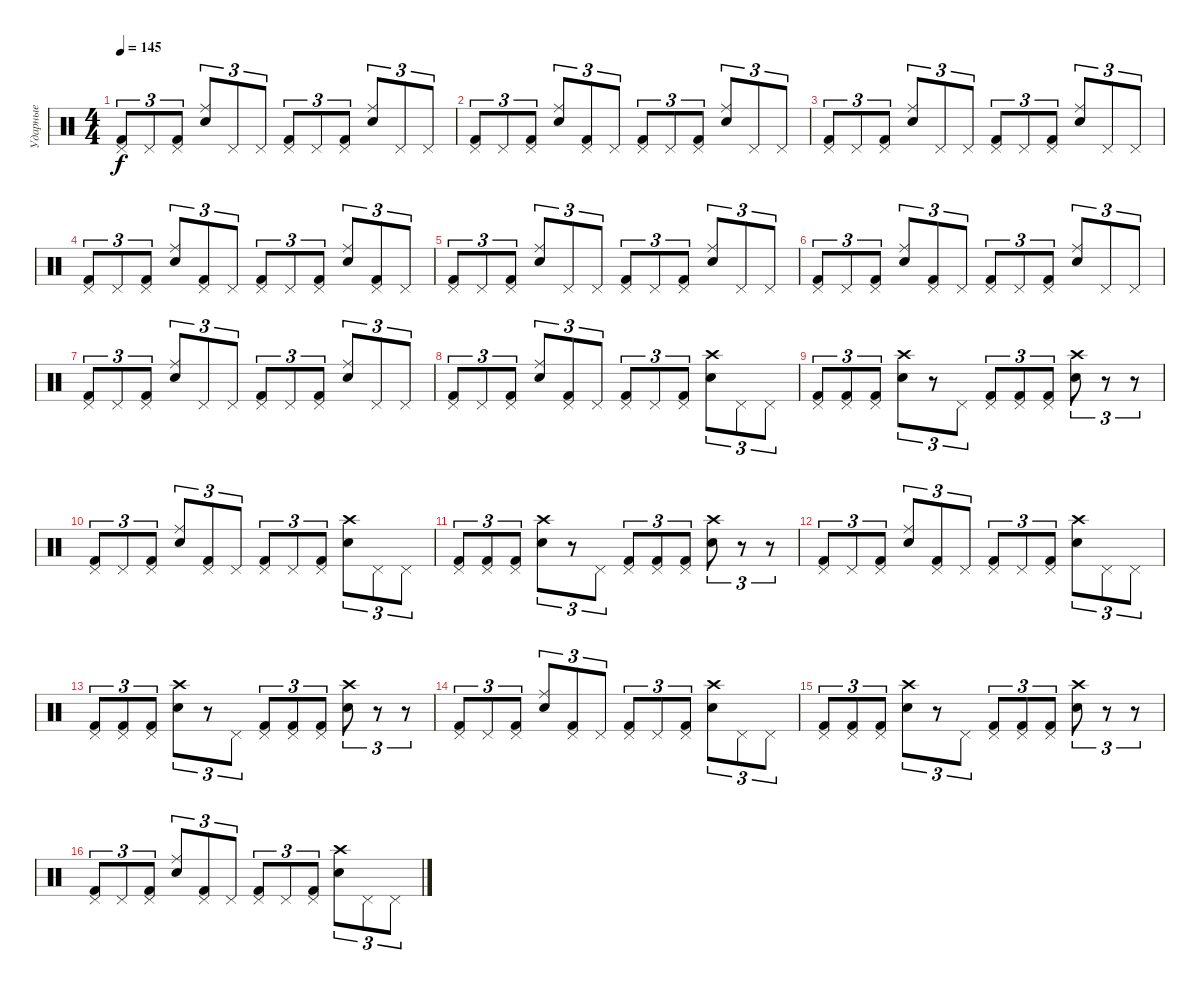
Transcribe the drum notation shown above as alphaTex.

\track ("Ударные" "Ударные") {instrument percussion}
\staff {score}
\articulation defaults
\ts (4 4)
\tempo 145
\clef neutral
\ks c
("Kick (hit) 2" "Pedal Hi-Hat (hit)").8{tu (3 2) dy f} "Pedal Hi-Hat (hit)".8{tu (3 2)} ("Kick (hit) 2" "Pedal Hi-Hat (hit)").8{tu (3 2)} ("Electric Snare (hit)" "Ride (middle)").8{tu (3 2)} "Pedal Hi-Hat (hit)".8{tu (3 2)} "Pedal Hi-Hat (hit)".8{tu (3 2)} ("Kick (hit) 2" "Pedal Hi-Hat (hit)").8{tu (3 2)} "Pedal Hi-Hat (hit)".8{tu (3 2)} ("Pedal Hi-Hat (hit)" "Kick (hit) 2").8{tu (3 2)} ("Electric Snare (hit)" "Ride (middle)").8{tu (3 2)} "Pedal Hi-Hat (hit)".8{tu (3 2)} "Pedal Hi-Hat (hit)".8{tu (3 2)} |
("Kick (hit) 2" "Pedal Hi-Hat (hit)").8{tu (3 2)} "Pedal Hi-Hat (hit)".8{tu (3 2)} ("Kick (hit) 2" "Pedal Hi-Hat (hit)").8{tu (3 2)} ("Electric Snare (hit)" "Ride (middle)").8{tu (3 2)} ("Kick (hit) 2" "Pedal Hi-Hat (hit)").8{tu (3 2)} "Pedal Hi-Hat (hit)".8{tu (3 2)} ("Kick (hit) 2" "Pedal Hi-Hat (hit)").8{tu (3 2)} "Pedal Hi-Hat (hit)".8{tu (3 2)} ("Pedal Hi-Hat (hit)" "Kick (hit) 2").8{tu (3 2)} ("Electric Snare (hit)" "Ride (middle)").8{tu (3 2)} "Pedal Hi-Hat (hit)".8{tu (3 2)} "Pedal Hi-Hat (hit)".8{tu (3 2)} |
("Kick (hit) 2" "Pedal Hi-Hat (hit)").8{tu (3 2)} "Pedal Hi-Hat (hit)".8{tu (3 2)} ("Kick (hit) 2" "Pedal Hi-Hat (hit)").8{tu (3 2)} ("Electric Snare (hit)" "Ride (middle)").8{tu (3 2)} "Pedal Hi-Hat (hit)".8{tu (3 2)} "Pedal Hi-Hat (hit)".8{tu (3 2)} ("Kick (hit) 2" "Pedal Hi-Hat (hit)").8{tu (3 2)} "Pedal Hi-Hat (hit)".8{tu (3 2)} ("Pedal Hi-Hat (hit)" "Kick (hit) 2").8{tu (3 2)} ("Electric Snare (hit)" "Ride (middle)").8{tu (3 2)} "Pedal Hi-Hat (hit)".8{tu (3 2)} "Pedal Hi-Hat (hit)".8{tu (3 2)} |
("Kick (hit) 2" "Pedal Hi-Hat (hit)").8{tu (3 2)} "Pedal Hi-Hat (hit)".8{tu (3 2)} ("Kick (hit) 2" "Pedal Hi-Hat (hit)").8{tu (3 2)} ("Electric Snare (hit)" "Ride (middle)").8{tu (3 2)} ("Kick (hit) 2" "Pedal Hi-Hat (hit)").8{tu (3 2)} "Pedal Hi-Hat (hit)".8{tu (3 2)} ("Kick (hit) 2" "Pedal Hi-Hat (hit)").8{tu (3 2)} "Pedal Hi-Hat (hit)".8{tu (3 2)} ("Pedal Hi-Hat (hit)" "Kick (hit) 2").8{tu (3 2)} ("Electric Snare (hit)" "Ride (middle)").8{tu (3 2)} ("Kick (hit) 2" "Pedal Hi-Hat (hit)").8{tu (3 2)} "Pedal Hi-Hat (hit)".8{tu (3 2)} |
("Kick (hit) 2" "Pedal Hi-Hat (hit)").8{tu (3 2)} "Pedal Hi-Hat (hit)".8{tu (3 2)} ("Kick (hit) 2" "Pedal Hi-Hat (hit)").8{tu (3 2)} ("Electric Snare (hit)" "Ride (middle)").8{tu (3 2)} "Pedal Hi-Hat (hit)".8{tu (3 2)} "Pedal Hi-Hat (hit)".8{tu (3 2)} ("Kick (hit) 2" "Pedal Hi-Hat (hit)").8{tu (3 2)} "Pedal Hi-Hat (hit)".8{tu (3 2)} ("Pedal Hi-Hat (hit)" "Kick (hit) 2").8{tu (3 2)} ("Electric Snare (hit)" "Ride (middle)").8{tu (3 2)} "Pedal Hi-Hat (hit)".8{tu (3 2)} "Pedal Hi-Hat (hit)".8{tu (3 2)} |
("Kick (hit) 2" "Pedal Hi-Hat (hit)").8{tu (3 2)} "Pedal Hi-Hat (hit)".8{tu (3 2)} ("Kick (hit) 2" "Pedal Hi-Hat (hit)").8{tu (3 2)} ("Electric Snare (hit)" "Ride (middle)").8{tu (3 2)} ("Pedal Hi-Hat (hit)" "Kick (hit) 2").8{tu (3 2)} "Pedal Hi-Hat (hit)".8{tu (3 2)} ("Kick (hit) 2" "Pedal Hi-Hat (hit)").8{tu (3 2)} "Pedal Hi-Hat (hit)".8{tu (3 2)} ("Pedal Hi-Hat (hit)" "Kick (hit) 2").8{tu (3 2)} ("Electric Snare (hit)" "Ride (middle)").8{tu (3 2)} "Pedal Hi-Hat (hit)".8{tu (3 2)} "Pedal Hi-Hat (hit)".8{tu (3 2)} |
("Kick (hit) 2" "Pedal Hi-Hat (hit)").8{tu (3 2)} "Pedal Hi-Hat (hit)".8{tu (3 2)} ("Kick (hit) 2" "Pedal Hi-Hat (hit)").8{tu (3 2)} ("Electric Snare (hit)" "Ride (middle)").8{tu (3 2)} "Pedal Hi-Hat (hit)".8{tu (3 2)} "Pedal Hi-Hat (hit)".8{tu (3 2)} ("Kick (hit) 2" "Pedal Hi-Hat (hit)").8{tu (3 2)} "Pedal Hi-Hat (hit)".8{tu (3 2)} ("Pedal Hi-Hat (hit)" "Kick (hit) 2").8{tu (3 2)} ("Electric Snare (hit)" "Ride (middle)").8{tu (3 2)} "Pedal Hi-Hat (hit)".8{tu (3 2)} "Pedal Hi-Hat (hit)".8{tu (3 2)} |
("Kick (hit) 2" "Pedal Hi-Hat (hit)").8{tu (3 2)} "Pedal Hi-Hat (hit)".8{tu (3 2)} ("Kick (hit) 2" "Pedal Hi-Hat (hit)").8{tu (3 2)} ("Electric Snare (hit)" "Ride (middle)").8{tu (3 2)} ("Kick (hit) 2" "Pedal Hi-Hat (hit)").8{tu (3 2)} "Pedal Hi-Hat (hit)".8{tu (3 2)} ("Kick (hit) 2" "Pedal Hi-Hat (hit)").8{tu (3 2)} "Pedal Hi-Hat (hit)".8{tu (3 2)} ("Pedal Hi-Hat (hit)" "Kick (hit) 2").8{tu (3 2)} ("Electric Snare (hit)" "Crash high (hit)").8{tu (3 2)} "Pedal Hi-Hat (hit)".8{tu (3 2)} "Pedal Hi-Hat (hit)".8{tu (3 2)} |
("Kick (hit) 2" "Pedal Hi-Hat (hit)").8{tu (3 2)} ("Kick (hit) 2" "Pedal Hi-Hat (hit)").8{tu (3 2)} ("Kick (hit) 2" "Pedal Hi-Hat (hit)").8{tu (3 2)} ("Crash high (hit)" "Electric Snare (hit)").8{tu (3 2)} r.8{tu (3 2)} "Pedal Hi-Hat (hit)".8{tu (3 2)} ("Kick (hit) 2" "Pedal Hi-Hat (hit)").8{tu (3 2)} ("Kick (hit) 2" "Pedal Hi-Hat (hit)").8{tu (3 2)} ("Kick (hit) 2" "Pedal Hi-Hat (hit)").8{tu (3 2)} ("Electric Snare (hit)" "Crash high (hit)").8{tu (3 2)} r.8{tu (3 2)} r.8{tu (3 2)} |
("Kick (hit) 2" "Pedal Hi-Hat (hit)").8{tu (3 2)} "Pedal Hi-Hat (hit)".8{tu (3 2)} ("Kick (hit) 2" "Pedal Hi-Hat (hit)").8{tu (3 2)} ("Electric Snare (hit)" "Ride (middle)").8{tu (3 2)} ("Kick (hit) 2" "Pedal Hi-Hat (hit)").8{tu (3 2)} "Pedal Hi-Hat (hit)".8{tu (3 2)} ("Kick (hit) 2" "Pedal Hi-Hat (hit)").8{tu (3 2)} "Pedal Hi-Hat (hit)".8{tu (3 2)} ("Pedal Hi-Hat (hit)" "Kick (hit) 2").8{tu (3 2)} ("Electric Snare (hit)" "Crash high (hit)").8{tu (3 2)} "Pedal Hi-Hat (hit)".8{tu (3 2)} "Pedal Hi-Hat (hit)".8{tu (3 2)} |
("Kick (hit) 2" "Pedal Hi-Hat (hit)").8{tu (3 2)} ("Kick (hit) 2" "Pedal Hi-Hat (hit)").8{tu (3 2)} ("Kick (hit) 2" "Pedal Hi-Hat (hit)").8{tu (3 2)} ("Crash high (hit)" "Electric Snare (hit)").8{tu (3 2)} r.8{tu (3 2)} "Pedal Hi-Hat (hit)".8{tu (3 2)} ("Kick (hit) 2" "Pedal Hi-Hat (hit)").8{tu (3 2)} ("Kick (hit) 2" "Pedal Hi-Hat (hit)").8{tu (3 2)} ("Kick (hit) 2" "Pedal Hi-Hat (hit)").8{tu (3 2)} ("Electric Snare (hit)" "Crash high (hit)").8{tu (3 2)} r.8{tu (3 2)} r.8{tu (3 2)} |
("Kick (hit) 2" "Pedal Hi-Hat (hit)").8{tu (3 2)} "Pedal Hi-Hat (hit)".8{tu (3 2)} ("Kick (hit) 2" "Pedal Hi-Hat (hit)").8{tu (3 2)} ("Electric Snare (hit)" "Ride (middle)").8{tu (3 2)} ("Kick (hit) 2" "Pedal Hi-Hat (hit)").8{tu (3 2)} "Pedal Hi-Hat (hit)".8{tu (3 2)} ("Kick (hit) 2" "Pedal Hi-Hat (hit)").8{tu (3 2)} "Pedal Hi-Hat (hit)".8{tu (3 2)} ("Pedal Hi-Hat (hit)" "Kick (hit) 2").8{tu (3 2)} ("Electric Snare (hit)" "Crash high (hit)").8{tu (3 2)} "Pedal Hi-Hat (hit)".8{tu (3 2)} "Pedal Hi-Hat (hit)".8{tu (3 2)} |
("Kick (hit) 2" "Pedal Hi-Hat (hit)").8{tu (3 2)} ("Kick (hit) 2" "Pedal Hi-Hat (hit)").8{tu (3 2)} ("Kick (hit) 2" "Pedal Hi-Hat (hit)").8{tu (3 2)} ("Crash high (hit)" "Electric Snare (hit)").8{tu (3 2)} r.8{tu (3 2)} "Pedal Hi-Hat (hit)".8{tu (3 2)} ("Kick (hit) 2" "Pedal Hi-Hat (hit)").8{tu (3 2)} ("Kick (hit) 2" "Pedal Hi-Hat (hit)").8{tu (3 2)} ("Kick (hit) 2" "Pedal Hi-Hat (hit)").8{tu (3 2)} ("Electric Snare (hit)" "Crash high (hit)").8{tu (3 2)} r.8{tu (3 2)} r.8{tu (3 2)} |
("Kick (hit) 2" "Pedal Hi-Hat (hit)").8{tu (3 2)} "Pedal Hi-Hat (hit)".8{tu (3 2)} ("Kick (hit) 2" "Pedal Hi-Hat (hit)").8{tu (3 2)} ("Electric Snare (hit)" "Ride (middle)").8{tu (3 2)} ("Kick (hit) 2" "Pedal Hi-Hat (hit)").8{tu (3 2)} "Pedal Hi-Hat (hit)".8{tu (3 2)} ("Kick (hit) 2" "Pedal Hi-Hat (hit)").8{tu (3 2)} "Pedal Hi-Hat (hit)".8{tu (3 2)} ("Pedal Hi-Hat (hit)" "Kick (hit) 2").8{tu (3 2)} ("Electric Snare (hit)" "Crash high (hit)").8{tu (3 2)} "Pedal Hi-Hat (hit)".8{tu (3 2)} "Pedal Hi-Hat (hit)".8{tu (3 2)} |
("Kick (hit) 2" "Pedal Hi-Hat (hit)").8{tu (3 2)} ("Kick (hit) 2" "Pedal Hi-Hat (hit)").8{tu (3 2)} ("Kick (hit) 2" "Pedal Hi-Hat (hit)").8{tu (3 2)} ("Crash high (hit)" "Electric Snare (hit)").8{tu (3 2)} r.8{tu (3 2)} "Pedal Hi-Hat (hit)".8{tu (3 2)} ("Kick (hit) 2" "Pedal Hi-Hat (hit)").8{tu (3 2)} ("Kick (hit) 2" "Pedal Hi-Hat (hit)").8{tu (3 2)} ("Kick (hit) 2" "Pedal Hi-Hat (hit)").8{tu (3 2)} ("Electric Snare (hit)" "Crash high (hit)").8{tu (3 2)} r.8{tu (3 2)} r.8{tu (3 2)} |
("Kick (hit) 2" "Pedal Hi-Hat (hit)").8{tu (3 2)} "Pedal Hi-Hat (hit)".8{tu (3 2)} ("Kick (hit) 2" "Pedal Hi-Hat (hit)").8{tu (3 2)} ("Electric Snare (hit)" "Ride (middle)").8{tu (3 2)} ("Kick (hit) 2" "Pedal Hi-Hat (hit)").8{tu (3 2)} "Pedal Hi-Hat (hit)".8{tu (3 2)} ("Kick (hit) 2" "Pedal Hi-Hat (hit)").8{tu (3 2)} "Pedal Hi-Hat (hit)".8{tu (3 2)} ("Pedal Hi-Hat (hit)" "Kick (hit) 2").8{tu (3 2)} ("Electric Snare (hit)" "Crash high (hit)").8{tu (3 2)} "Pedal Hi-Hat (hit)".8{tu (3 2)} "Pedal Hi-Hat (hit)".8{tu (3 2)}
